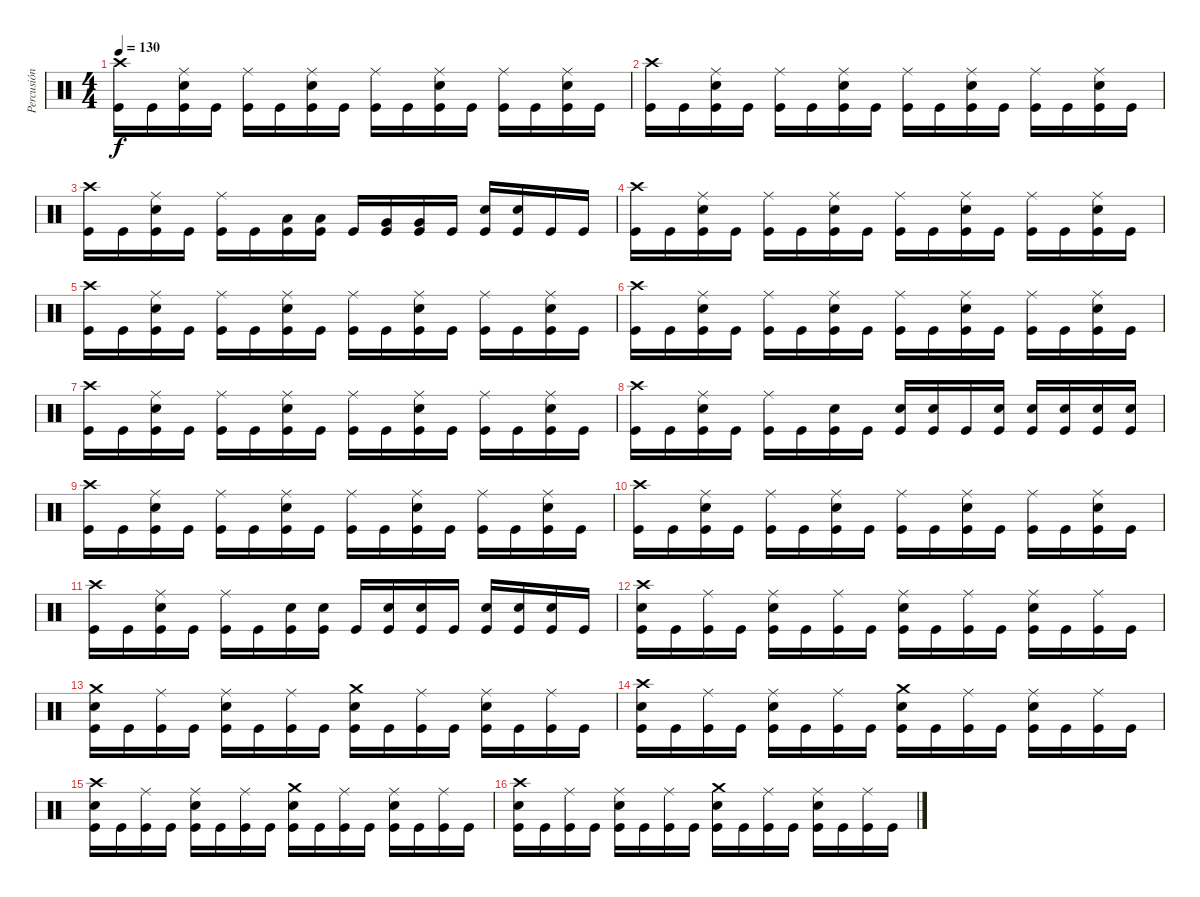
\track ("Percusión" "Percusión") {instrument percussion}
\staff {score}
\articulation defaults
\ts (4 4)
\tempo 130
\clef neutral
\ks c
("Crash high (hit)" "Kick (hit)").16{dy f} "Kick (hit)".16 ("Ride (middle)" "Electric Snare (hit)" "Kick (hit)").16 "Kick (hit)".16 ("Ride (middle)" "Kick (hit)").16 "Kick (hit)".16 ("Ride (middle)" "Electric Snare (hit)" "Kick (hit)").16 "Kick (hit)".16 ("Ride (middle)" "Kick (hit)").16 "Kick (hit)".16 ("Ride (middle)" "Electric Snare (hit)" "Kick (hit)").16 "Kick (hit)".16 ("Ride (middle)" "Kick (hit)").16 "Kick (hit)".16 ("Ride (middle)" "Electric Snare (hit)" "Kick (hit)").16 "Kick (hit)".16 |
("Crash high (hit)" "Kick (hit)").16 "Kick (hit)".16 ("Ride (middle)" "Electric Snare (hit)" "Kick (hit)").16 "Kick (hit)".16 ("Ride (middle)" "Kick (hit)").16 "Kick (hit)".16 ("Ride (middle)" "Electric Snare (hit)" "Kick (hit)").16 "Kick (hit)".16 ("Ride (middle)" "Kick (hit)").16 "Kick (hit)".16 ("Ride (middle)" "Electric Snare (hit)" "Kick (hit)").16 "Kick (hit)".16 ("Ride (middle)" "Kick (hit)").16 "Kick (hit)".16 ("Ride (middle)" "Electric Snare (hit)" "Kick (hit)").16 "Kick (hit)".16 |
("Crash high (hit)" "Kick (hit)").16 "Kick (hit)".16 ("Ride (middle)" "Electric Snare (hit)" "Kick (hit)").16 "Kick (hit)".16 ("Ride (middle)" "Kick (hit)").16 "Kick (hit)".16 ("Low Tom (hit)" "Kick (hit)").16 ("Low Tom (hit)" "Kick (hit)").16 "Kick (hit)".16 ("Very Low Tom (hit)" "Kick (hit)").16 ("Very Low Tom (hit)" "Kick (hit)").16 "Kick (hit)".16 ("Electric Snare (hit)" "Kick (hit)").16 ("Electric Snare (hit)" "Kick (hit)").16 "Kick (hit)".16 "Kick (hit)".16 |
("Crash high (hit)" "Kick (hit)").16 "Kick (hit)".16 ("Ride (middle)" "Electric Snare (hit)" "Kick (hit)").16 "Kick (hit)".16 ("Ride (middle)" "Kick (hit)").16 "Kick (hit)".16 ("Ride (middle)" "Electric Snare (hit)" "Kick (hit)").16 "Kick (hit)".16 ("Ride (middle)" "Kick (hit)").16 "Kick (hit)".16 ("Ride (middle)" "Electric Snare (hit)" "Kick (hit)").16 "Kick (hit)".16 ("Ride (middle)" "Kick (hit)").16 "Kick (hit)".16 ("Ride (middle)" "Electric Snare (hit)" "Kick (hit)").16 "Kick (hit)".16 |
("Crash high (hit)" "Kick (hit)").16 "Kick (hit)".16 ("Ride (middle)" "Electric Snare (hit)" "Kick (hit)").16 "Kick (hit)".16 ("Ride (middle)" "Kick (hit)").16 "Kick (hit)".16 ("Ride (middle)" "Electric Snare (hit)" "Kick (hit)").16 "Kick (hit)".16 ("Ride (middle)" "Kick (hit)").16 "Kick (hit)".16 ("Ride (middle)" "Electric Snare (hit)" "Kick (hit)").16 "Kick (hit)".16 ("Ride (middle)" "Kick (hit)").16 "Kick (hit)".16 ("Ride (middle)" "Electric Snare (hit)" "Kick (hit)").16 "Kick (hit)".16 |
("Crash high (hit)" "Kick (hit)").16 "Kick (hit)".16 ("Ride (middle)" "Electric Snare (hit)" "Kick (hit)").16 "Kick (hit)".16 ("Ride (middle)" "Kick (hit)").16 "Kick (hit)".16 ("Ride (middle)" "Electric Snare (hit)" "Kick (hit)").16 "Kick (hit)".16 ("Ride (middle)" "Kick (hit)").16 "Kick (hit)".16 ("Ride (middle)" "Electric Snare (hit)" "Kick (hit)").16 "Kick (hit)".16 ("Ride (middle)" "Kick (hit)").16 "Kick (hit)".16 ("Ride (middle)" "Electric Snare (hit)" "Kick (hit)").16 "Kick (hit)".16 |
("Crash high (hit)" "Kick (hit)").16 "Kick (hit)".16 ("Ride (middle)" "Electric Snare (hit)" "Kick (hit)").16 "Kick (hit)".16 ("Ride (middle)" "Kick (hit)").16 "Kick (hit)".16 ("Ride (middle)" "Electric Snare (hit)" "Kick (hit)").16 "Kick (hit)".16 ("Ride (middle)" "Kick (hit)").16 "Kick (hit)".16 ("Ride (middle)" "Electric Snare (hit)" "Kick (hit)").16 "Kick (hit)".16 ("Ride (middle)" "Kick (hit)").16 "Kick (hit)".16 ("Ride (middle)" "Electric Snare (hit)" "Kick (hit)").16 "Kick (hit)".16 |
("Crash high (hit)" "Kick (hit)").16 "Kick (hit)".16 ("Ride (middle)" "Electric Snare (hit)" "Kick (hit)").16 "Kick (hit)".16 ("Ride (middle)" "Kick (hit)").16 "Kick (hit)".16 ("Electric Snare (hit)" "Kick (hit)").16 "Kick (hit)".16 ("Electric Snare (hit)" "Kick (hit)").16 ("Electric Snare (hit)" "Kick (hit)").16 "Kick (hit)".16 ("Electric Snare (hit)" "Kick (hit)").16 ("Electric Snare (hit)" "Kick (hit)").16 ("Electric Snare (hit)" "Kick (hit)").16 ("Electric Snare (hit)" "Kick (hit)").16 ("Electric Snare (hit)" "Kick (hit)").16 |
("Crash high (hit)" "Kick (hit)").16 "Kick (hit)".16 ("Ride (middle)" "Electric Snare (hit)" "Kick (hit)").16 "Kick (hit)".16 ("Ride (middle)" "Kick (hit)").16 "Kick (hit)".16 ("Ride (middle)" "Electric Snare (hit)" "Kick (hit)").16 "Kick (hit)".16 ("Ride (middle)" "Kick (hit)").16 "Kick (hit)".16 ("Ride (middle)" "Electric Snare (hit)" "Kick (hit)").16 "Kick (hit)".16 ("Ride (middle)" "Kick (hit)").16 "Kick (hit)".16 ("Ride (middle)" "Electric Snare (hit)" "Kick (hit)").16 "Kick (hit)".16 |
("Crash high (hit)" "Kick (hit)").16 "Kick (hit)".16 ("Ride (middle)" "Electric Snare (hit)" "Kick (hit)").16 "Kick (hit)".16 ("Ride (middle)" "Kick (hit)").16 "Kick (hit)".16 ("Ride (middle)" "Electric Snare (hit)" "Kick (hit)").16 "Kick (hit)".16 ("Ride (middle)" "Kick (hit)").16 "Kick (hit)".16 ("Ride (middle)" "Electric Snare (hit)" "Kick (hit)").16 "Kick (hit)".16 ("Ride (middle)" "Kick (hit)").16 "Kick (hit)".16 ("Ride (middle)" "Electric Snare (hit)" "Kick (hit)").16 "Kick (hit)".16 |
("Crash high (hit)" "Kick (hit)").16 "Kick (hit)".16 ("Ride (middle)" "Electric Snare (hit)" "Kick (hit)").16 "Kick (hit)".16 ("Ride (middle)" "Kick (hit)").16 "Kick (hit)".16 ("Electric Snare (hit)" "Kick (hit)").16 ("Electric Snare (hit)" "Kick (hit)").16 "Kick (hit)".16 ("Electric Snare (hit)" "Kick (hit)").16 ("Electric Snare (hit)" "Kick (hit)").16 "Kick (hit)".16 ("Electric Snare (hit)" "Kick (hit)").16 ("Electric Snare (hit)" "Kick (hit)").16 ("Electric Snare (hit)" "Kick (hit)").16 "Kick (hit)".16 |
("Crash high (hit)" "Electric Snare (hit)" "Kick (hit)").16 "Kick (hit)".16 ("Ride (middle)" "Kick (hit)").16 "Kick (hit)".16 ("Ride (middle)" "Electric Snare (hit)" "Kick (hit)").16 "Kick (hit)".16 ("Ride (middle)" "Kick (hit)").16 "Kick (hit)".16 ("Ride (middle)" "Electric Snare (hit)" "Kick (hit)").16 "Kick (hit)".16 ("Ride (middle)" "Kick (hit)").16 "Kick (hit)".16 ("Ride (middle)" "Electric Snare (hit)" "Kick (hit)").16 "Kick (hit)".16 ("Ride (middle)" "Kick (hit)").16 "Kick (hit)".16 |
("Crash medium (hit)" "Electric Snare (hit)" "Kick (hit)").16 "Kick (hit)".16 ("Ride (middle)" "Kick (hit)").16 "Kick (hit)".16 ("Ride (middle)" "Electric Snare (hit)" "Kick (hit)").16 "Kick (hit)".16 ("Ride (middle)" "Kick (hit)").16 "Kick (hit)".16 ("Crash medium (hit)" "Electric Snare (hit)" "Kick (hit)").16 "Kick (hit)".16 ("Ride (middle)" "Kick (hit)").16 "Kick (hit)".16 ("Ride (middle)" "Electric Snare (hit)" "Kick (hit)").16 "Kick (hit)".16 ("Ride (middle)" "Kick (hit)").16 "Kick (hit)".16 |
("Crash high (hit)" "Electric Snare (hit)" "Kick (hit)").16 "Kick (hit)".16 ("Ride (middle)" "Kick (hit)").16 "Kick (hit)".16 ("Ride (middle)" "Electric Snare (hit)" "Kick (hit)").16 "Kick (hit)".16 ("Ride (middle)" "Kick (hit)").16 "Kick (hit)".16 ("Crash medium (hit)" "Electric Snare (hit)" "Kick (hit)").16 "Kick (hit)".16 ("Ride (middle)" "Kick (hit)").16 "Kick (hit)".16 ("Ride (middle)" "Electric Snare (hit)" "Kick (hit)").16 "Kick (hit)".16 ("Ride (middle)" "Kick (hit)").16 "Kick (hit)".16 |
("Crash high (hit)" "Electric Snare (hit)" "Kick (hit)").16 "Kick (hit)".16 ("Ride (middle)" "Kick (hit)").16 "Kick (hit)".16 ("Ride (middle)" "Electric Snare (hit)" "Kick (hit)").16 "Kick (hit)".16 ("Ride (middle)" "Kick (hit)").16 "Kick (hit)".16 ("Crash medium (hit)" "Electric Snare (hit)" "Kick (hit)").16 "Kick (hit)".16 ("Ride (middle)" "Kick (hit)").16 "Kick (hit)".16 ("Ride (middle)" "Electric Snare (hit)" "Kick (hit)").16 "Kick (hit)".16 ("Ride (middle)" "Kick (hit)").16 "Kick (hit)".16 |
("Crash high (hit)" "Electric Snare (hit)" "Kick (hit)").16 "Kick (hit)".16 ("Ride (middle)" "Kick (hit)").16 "Kick (hit)".16 ("Ride (middle)" "Electric Snare (hit)" "Kick (hit)").16 "Kick (hit)".16 ("Ride (middle)" "Kick (hit)").16 "Kick (hit)".16 ("Crash medium (hit)" "Electric Snare (hit)" "Kick (hit)").16 "Kick (hit)".16 ("Ride (middle)" "Kick (hit)").16 "Kick (hit)".16 ("Ride (middle)" "Electric Snare (hit)" "Kick (hit)").16 "Kick (hit)".16 ("Ride (middle)" "Kick (hit)").16 "Kick (hit)".16
